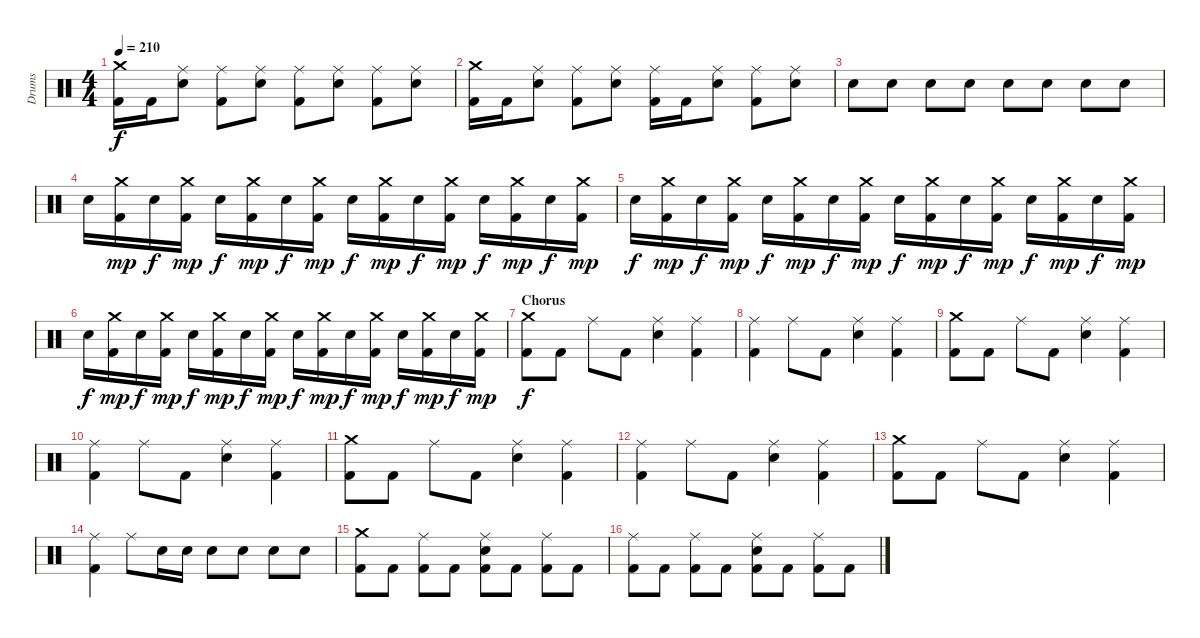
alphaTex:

\track ("Drums" "Drums") {instrument percussion}
\staff {score}
\articulation defaults
\ts (4 4)
\tempo 210
\clef neutral
\ks c
("Kick (hit) 2" "Crash medium (hit)").16{dy f} "Kick (hit) 2".16 ("Snare (hit) 2" "Ride (middle)").8 ("Kick (hit) 2" "Ride (middle)").8 ("Snare (hit) 2" "Ride (middle)").8 ("Kick (hit) 2" "Ride (middle)").8 ("Snare (hit) 2" "Ride (middle)").8 ("Kick (hit) 2" "Ride (middle)").8 ("Snare (hit) 2" "Ride (middle)").8 |
("Kick (hit) 2" "Crash medium (hit)").16 "Kick (hit) 2".16 ("Snare (hit) 2" "Ride (middle)").8 ("Kick (hit) 2" "Ride (middle)").8 ("Snare (hit) 2" "Ride (middle)").8 ("Kick (hit) 2" "Ride (middle)").16 "Kick (hit) 2".16 ("Snare (hit) 2" "Ride (middle)").8 ("Kick (hit) 2" "Ride (middle)").8 ("Snare (hit) 2" "Ride (middle)").8 |
"Snare (hit) 2".8 "Snare (hit) 2".8 "Snare (hit) 2".8 "Snare (hit) 2".8 "Snare (hit) 2".8 "Snare (hit) 2".8 "Snare (hit) 2".8 "Snare (hit) 2".8 |
"Snare (hit) 2".16 ("Kick (hit) 2" "Crash medium (hit)").16{dy mp} "Snare (hit) 2".16{dy f} ("Kick (hit) 2" "Crash medium (hit)").16{dy mp} "Snare (hit) 2".16{dy f} ("Kick (hit) 2" "Crash medium (hit)").16{dy mp} "Snare (hit) 2".16{dy f} ("Kick (hit) 2" "Crash medium (hit)").16{dy mp} "Snare (hit) 2".16{dy f} ("Kick (hit) 2" "Crash medium (hit)").16{dy mp} "Snare (hit) 2".16{dy f} ("Kick (hit) 2" "Crash medium (hit)").16{dy mp} "Snare (hit) 2".16{dy f} ("Kick (hit) 2" "Crash medium (hit)").16{dy mp} "Snare (hit) 2".16{dy f} ("Kick (hit) 2" "Crash medium (hit)").16{dy mp} |
"Snare (hit) 2".16{dy f} ("Kick (hit) 2" "Crash medium (hit)").16{dy mp} "Snare (hit) 2".16{dy f} ("Kick (hit) 2" "Crash medium (hit)").16{dy mp} "Snare (hit) 2".16{dy f} ("Kick (hit) 2" "Crash medium (hit)").16{dy mp} "Snare (hit) 2".16{dy f} ("Kick (hit) 2" "Crash medium (hit)").16{dy mp} "Snare (hit) 2".16{dy f} ("Kick (hit) 2" "Crash medium (hit)").16{dy mp} "Snare (hit) 2".16{dy f} ("Kick (hit) 2" "Crash medium (hit)").16{dy mp} "Snare (hit) 2".16{dy f} ("Kick (hit) 2" "Crash medium (hit)").16{dy mp} "Snare (hit) 2".16{dy f} ("Kick (hit) 2" "Crash medium (hit)").16{dy mp} |
"Snare (hit) 2".16{dy f} ("Kick (hit) 2" "Crash medium (hit)").16{dy mp} "Snare (hit) 2".16{dy f} ("Kick (hit) 2" "Crash medium (hit)").16{dy mp} "Snare (hit) 2".16{dy f} ("Kick (hit) 2" "Crash medium (hit)").16{dy mp} "Snare (hit) 2".16{dy f} ("Kick (hit) 2" "Crash medium (hit)").16{dy mp} "Snare (hit) 2".16{dy f} ("Kick (hit) 2" "Crash medium (hit)").16{dy mp} "Snare (hit) 2".16{dy f} ("Kick (hit) 2" "Crash medium (hit)").16{dy mp} "Snare (hit) 2".16{dy f} ("Kick (hit) 2" "Crash medium (hit)").16{dy mp} "Snare (hit) 2".16{dy f} ("Kick (hit) 2" "Crash medium (hit)").16{dy mp} |
\section ("" "Chorus")
("Kick (hit) 2" "Crash medium (hit)").8{dy f} "Kick (hit) 2".8 "Ride (middle)".8 "Kick (hit) 2".8 ("Snare (hit) 2" "Ride (middle)").4 ("Kick (hit) 2" "Ride (middle)").4 |
("Kick (hit) 2" "Ride (middle)").4 "Ride (middle)".8 "Kick (hit) 2".8 ("Snare (hit) 2" "Ride (middle)").4 ("Kick (hit) 2" "Ride (middle)").4 |
("Kick (hit) 2" "Crash medium (hit)").8 "Kick (hit) 2".8 "Ride (middle)".8 "Kick (hit) 2".8 ("Snare (hit) 2" "Ride (middle)").4 ("Kick (hit) 2" "Ride (middle)").4 |
("Kick (hit) 2" "Ride (middle)").4 "Ride (middle)".8 "Kick (hit) 2".8 ("Snare (hit) 2" "Ride (middle)").4 ("Kick (hit) 2" "Ride (middle)").4 |
("Kick (hit) 2" "Crash medium (hit)").8 "Kick (hit) 2".8 "Ride (middle)".8 "Kick (hit) 2".8 ("Snare (hit) 2" "Ride (middle)").4 ("Kick (hit) 2" "Ride (middle)").4 |
("Kick (hit) 2" "Ride (middle)").4 "Ride (middle)".8 "Kick (hit) 2".8 ("Snare (hit) 2" "Ride (middle)").4 ("Kick (hit) 2" "Ride (middle)").4 |
("Kick (hit) 2" "Crash medium (hit)").8 "Kick (hit) 2".8 "Ride (middle)".8 "Kick (hit) 2".8 ("Snare (hit) 2" "Ride (middle)").4 ("Kick (hit) 2" "Ride (middle)").4 |
("Kick (hit) 2" "Ride (middle)").4 "Ride (middle)".8 "Snare (hit) 2".16 "Snare (hit) 2".16 "Snare (hit) 2".8 "Snare (hit) 2".8 "Snare (hit) 2".8 "Snare (hit) 2".8 |
("Kick (hit) 2" "Crash medium (hit)").8 "Kick (hit) 2".8 ("Kick (hit) 2" "Ride (middle)").8 "Kick (hit) 2".8 ("Kick (hit) 2" "Snare (hit) 2" "Ride (middle)").8 "Kick (hit) 2".8 ("Kick (hit) 2" "Ride (middle)").8 "Kick (hit) 2".8 |
("Kick (hit) 2" "Ride (middle)").8 "Kick (hit) 2".8 ("Kick (hit) 2" "Ride (middle)").8 "Kick (hit) 2".8 ("Kick (hit) 2" "Snare (hit) 2" "Ride (middle)").8 "Kick (hit) 2".8 ("Kick (hit) 2" "Ride (middle)").8 "Kick (hit) 2".8
